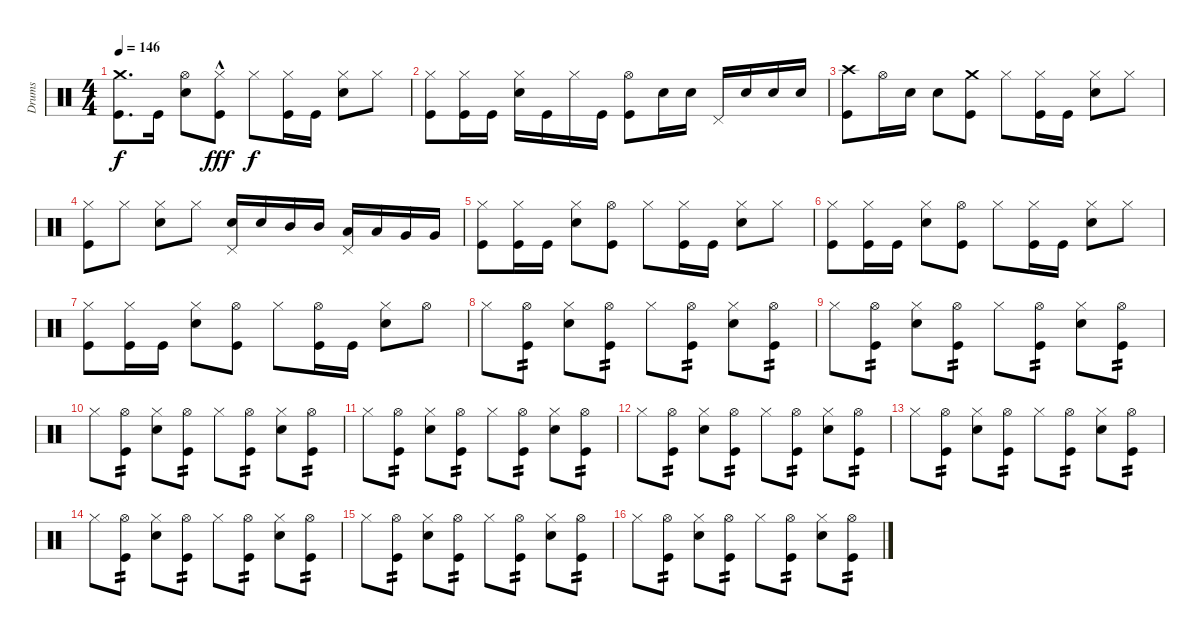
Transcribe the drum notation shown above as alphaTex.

\track ("Drums" "Drums") {instrument percussion}
\staff {score}
\articulation defaults
\ts (4 4)
\tempo 146
\clef neutral
\ks c
("Crash medium (hit)" "Kick (hit)").8{d dy f} "Kick (hit)".16 ("Hi-Hat (open)" "Electric Snare (hit)").8 ("Hi-Hat (closed)"{hac} "Kick (hit)"{hac}).8{dy fff} "Hi-Hat (closed)".8{dy f} ("Hi-Hat (closed)" "Kick (hit)").16 "Kick (hit)".16 ("Hi-Hat (closed)" "Electric Snare (hit)").8 "Hi-Hat (closed)".8 |
("Hi-Hat (closed)" "Kick (hit)").8 ("Hi-Hat (closed)" "Kick (hit)").16 "Kick (hit)".16 ("Hi-Hat (closed)" "Electric Snare (hit)").16 "Kick (hit)".16 "Hi-Hat (closed)".16 "Kick (hit)".16 ("Hi-Hat (open)" "Kick (hit)").8 "Electric Snare (hit)".16 "Electric Snare (hit)".16 "Pedal Hi-Hat (hit)".16 "Electric Snare (hit)".16 "Electric Snare (hit)".16 "Electric Snare (hit)".16 |
("Crash high (hit)" "Kick (hit)").8 "Hi-Hat (open)".16 "Electric Snare (hit)".16 "Electric Snare (hit)".8 ("Crash medium (hit)" "Kick (hit)").8 "Hi-Hat (closed)".8 ("Hi-Hat (closed)" "Kick (hit)").16 "Kick (hit)".16 ("Hi-Hat (closed)" "Electric Snare (hit)").8 "Hi-Hat (closed)".8 |
("Hi-Hat (closed)" "Kick (hit)").8 "Hi-Hat (closed)".8 ("Hi-Hat (closed)" "Electric Snare (hit)").8 "Hi-Hat (closed)".8 ("Pedal Hi-Hat (hit)" "Electric Snare (hit)").16 "Electric Snare (hit)".16 "Mid Tom (hit)".16 "Mid Tom (hit)".16 ("Pedal Hi-Hat (hit)" "Low Tom (hit)").16 "Low Tom (hit)".16 "Very Low Tom (hit)".16 "Very Low Tom (hit)".16 |
("Hi-Hat (closed)" "Kick (hit)").8 ("Hi-Hat (closed)" "Kick (hit)").16 "Kick (hit)".16 ("Hi-Hat (closed)" "Electric Snare (hit)").8 ("Hi-Hat (open)" "Kick (hit)").8 "Hi-Hat (closed)".8 ("Hi-Hat (closed)" "Kick (hit)").16 "Kick (hit)".16 ("Hi-Hat (closed)" "Electric Snare (hit)").8 "Hi-Hat (closed)".8 |
("Hi-Hat (closed)" "Kick (hit)").8 ("Hi-Hat (closed)" "Kick (hit)").16 "Kick (hit)".16 ("Hi-Hat (closed)" "Electric Snare (hit)").8 ("Hi-Hat (open)" "Kick (hit)").8 "Hi-Hat (closed)".8 ("Hi-Hat (closed)" "Kick (hit)").16 "Kick (hit)".16 ("Hi-Hat (closed)" "Electric Snare (hit)").8 "Hi-Hat (closed)".8 |
("Hi-Hat (closed)" "Kick (hit)").8 ("Hi-Hat (closed)" "Kick (hit)").16 "Kick (hit)".16 ("Hi-Hat (closed)" "Electric Snare (hit)").8 ("Hi-Hat (open)" "Kick (hit)").8 "Hi-Hat (closed)".8 ("Hi-Hat (open)" "Kick (hit)").16 "Kick (hit)".16 ("Hi-Hat (closed)" "Electric Snare (hit)").8 "Hi-Hat (open)".8 |
"Hi-Hat (closed)".8 ("Hi-Hat (open)" "Kick (hit)").8{tp 2} ("Hi-Hat (closed)" "Electric Snare (hit)").8 ("Hi-Hat (open)" "Kick (hit)").8{tp 2} "Hi-Hat (closed)".8 ("Hi-Hat (open)" "Kick (hit)").8{tp 2} ("Hi-Hat (closed)" "Electric Snare (hit)").8 ("Hi-Hat (open)" "Kick (hit)").8{tp 2} |
"Hi-Hat (closed)".8 ("Hi-Hat (open)" "Kick (hit)").8{tp 2} ("Hi-Hat (closed)" "Electric Snare (hit)").8 ("Hi-Hat (open)" "Kick (hit)").8{tp 2} "Hi-Hat (closed)".8 ("Hi-Hat (open)" "Kick (hit)").8{tp 2} ("Hi-Hat (closed)" "Electric Snare (hit)").8 ("Hi-Hat (open)" "Kick (hit)").8{tp 2} |
"Hi-Hat (closed)".8 ("Hi-Hat (open)" "Kick (hit)").8{tp 2} ("Hi-Hat (closed)" "Electric Snare (hit)").8 ("Hi-Hat (open)" "Kick (hit)").8{tp 2} "Hi-Hat (closed)".8 ("Hi-Hat (open)" "Kick (hit)").8{tp 2} ("Hi-Hat (closed)" "Electric Snare (hit)").8 ("Hi-Hat (open)" "Kick (hit)").8{tp 2} |
"Hi-Hat (closed)".8 ("Hi-Hat (open)" "Kick (hit)").8{tp 2} ("Hi-Hat (closed)" "Electric Snare (hit)").8 ("Hi-Hat (open)" "Kick (hit)").8{tp 2} "Hi-Hat (closed)".8 ("Hi-Hat (open)" "Kick (hit)").8{tp 2} ("Hi-Hat (closed)" "Electric Snare (hit)").8 ("Hi-Hat (open)" "Kick (hit)").8{tp 2} |
"Hi-Hat (closed)".8 ("Hi-Hat (open)" "Kick (hit)").8{tp 2} ("Hi-Hat (closed)" "Electric Snare (hit)").8 ("Hi-Hat (open)" "Kick (hit)").8{tp 2} "Hi-Hat (closed)".8 ("Hi-Hat (open)" "Kick (hit)").8{tp 2} ("Hi-Hat (closed)" "Electric Snare (hit)").8 ("Hi-Hat (open)" "Kick (hit)").8{tp 2} |
"Hi-Hat (closed)".8 ("Hi-Hat (open)" "Kick (hit)").8{tp 2} ("Hi-Hat (closed)" "Electric Snare (hit)").8 ("Hi-Hat (open)" "Kick (hit)").8{tp 2} "Hi-Hat (closed)".8 ("Hi-Hat (open)" "Kick (hit)").8{tp 2} ("Hi-Hat (closed)" "Electric Snare (hit)").8 ("Hi-Hat (open)" "Kick (hit)").8{tp 2} |
"Hi-Hat (closed)".8 ("Hi-Hat (open)" "Kick (hit)").8{tp 2} ("Hi-Hat (closed)" "Electric Snare (hit)").8 ("Hi-Hat (open)" "Kick (hit)").8{tp 2} "Hi-Hat (closed)".8 ("Hi-Hat (open)" "Kick (hit)").8{tp 2} ("Hi-Hat (closed)" "Electric Snare (hit)").8 ("Hi-Hat (open)" "Kick (hit)").8{tp 2} |
"Hi-Hat (closed)".8 ("Hi-Hat (open)" "Kick (hit)").8{tp 2} ("Hi-Hat (closed)" "Electric Snare (hit)").8 ("Hi-Hat (open)" "Kick (hit)").8{tp 2} "Hi-Hat (closed)".8 ("Hi-Hat (open)" "Kick (hit)").8{tp 2} ("Hi-Hat (closed)" "Electric Snare (hit)").8 ("Hi-Hat (open)" "Kick (hit)").8{tp 2} |
"Hi-Hat (closed)".8 ("Hi-Hat (open)" "Kick (hit)").8{tp 2} ("Hi-Hat (closed)" "Electric Snare (hit)").8 ("Hi-Hat (open)" "Kick (hit)").8{tp 2} "Hi-Hat (closed)".8 ("Hi-Hat (open)" "Kick (hit)").8{tp 2} ("Hi-Hat (closed)" "Electric Snare (hit)").8 ("Hi-Hat (open)" "Kick (hit)").8{tp 2}
